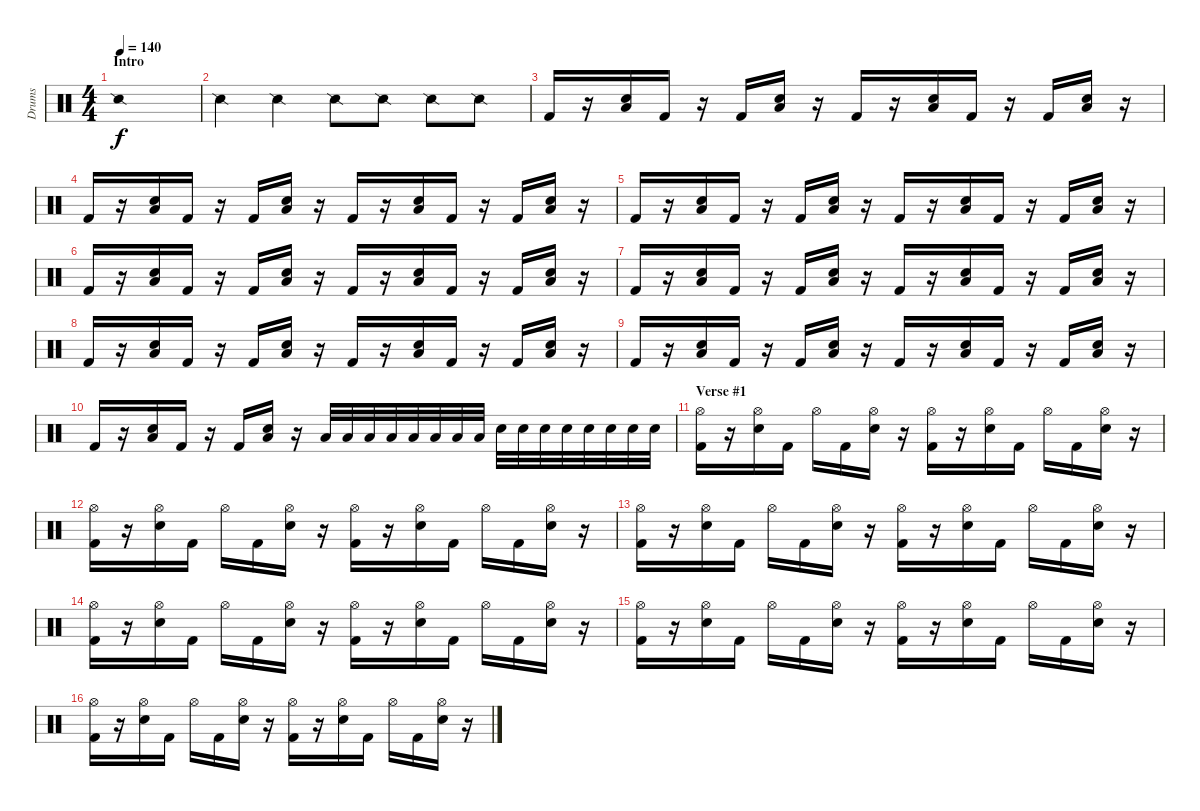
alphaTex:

\track ("Drums" "Drums") {instrument percussion}
\staff {score}
\articulation defaults
\ts (4 4)
\section ("" "Intro")
\tempo 140
\clef neutral
\ks c "Snare (side stick) 2".1{dy f}
|
"Snare (side stick) 2".4 "Snare (side stick) 2".4 "Snare (side stick) 2".8 "Snare (side stick) 2".8 "Snare (side stick) 2".8 "Snare (side stick) 2".8 |
"Kick (hit) 2".16 r.16 ("Low Tom (hit)" "Electric Snare (hit)").16 "Kick (hit) 2".16 r.16 "Kick (hit) 2".16 ("Low Tom (hit)" "Electric Snare (hit)").16 r.16 "Kick (hit) 2".16 r.16 ("Low Tom (hit)" "Electric Snare (hit)").16 "Kick (hit) 2".16 r.16 "Kick (hit) 2".16 ("Low Tom (hit)" "Electric Snare (hit)").16 r.16 |
"Kick (hit) 2".16 r.16 ("Low Tom (hit)" "Electric Snare (hit)").16 "Kick (hit) 2".16 r.16 "Kick (hit) 2".16 ("Low Tom (hit)" "Electric Snare (hit)").16 r.16 "Kick (hit) 2".16 r.16 ("Low Tom (hit)" "Electric Snare (hit)").16 "Kick (hit) 2".16 r.16 "Kick (hit) 2".16 ("Low Tom (hit)" "Electric Snare (hit)").16 r.16 |
"Kick (hit) 2".16 r.16 ("Low Tom (hit)" "Electric Snare (hit)").16 "Kick (hit) 2".16 r.16 "Kick (hit) 2".16 ("Low Tom (hit)" "Electric Snare (hit)").16 r.16 "Kick (hit) 2".16 r.16 ("Low Tom (hit)" "Electric Snare (hit)").16 "Kick (hit) 2".16 r.16 "Kick (hit) 2".16 ("Low Tom (hit)" "Electric Snare (hit)").16 r.16 |
"Kick (hit) 2".16 r.16 ("Low Tom (hit)" "Electric Snare (hit)").16 "Kick (hit) 2".16 r.16 "Kick (hit) 2".16 ("Low Tom (hit)" "Electric Snare (hit)").16 r.16 "Kick (hit) 2".16 r.16 ("Low Tom (hit)" "Electric Snare (hit)").16 "Kick (hit) 2".16 r.16 "Kick (hit) 2".16 ("Low Tom (hit)" "Electric Snare (hit)").16 r.16 |
"Kick (hit) 2".16 r.16 ("Low Tom (hit)" "Electric Snare (hit)").16 "Kick (hit) 2".16 r.16 "Kick (hit) 2".16 ("Low Tom (hit)" "Electric Snare (hit)").16 r.16 "Kick (hit) 2".16 r.16 ("Low Tom (hit)" "Electric Snare (hit)").16 "Kick (hit) 2".16 r.16 "Kick (hit) 2".16 ("Low Tom (hit)" "Electric Snare (hit)").16 r.16 |
"Kick (hit) 2".16 r.16 ("Low Tom (hit)" "Electric Snare (hit)").16 "Kick (hit) 2".16 r.16 "Kick (hit) 2".16 ("Low Tom (hit)" "Electric Snare (hit)").16 r.16 "Kick (hit) 2".16 r.16 ("Low Tom (hit)" "Electric Snare (hit)").16 "Kick (hit) 2".16 r.16 "Kick (hit) 2".16 ("Low Tom (hit)" "Electric Snare (hit)").16 r.16 |
"Kick (hit) 2".16 r.16 ("Low Tom (hit)" "Electric Snare (hit)").16 "Kick (hit) 2".16 r.16 "Kick (hit) 2".16 ("Low Tom (hit)" "Electric Snare (hit)").16 r.16 "Kick (hit) 2".16 r.16 ("Low Tom (hit)" "Electric Snare (hit)").16 "Kick (hit) 2".16 r.16 "Kick (hit) 2".16 ("Low Tom (hit)" "Electric Snare (hit)").16 r.16 |
"Kick (hit) 2".16 r.16 ("Low Tom (hit)" "Electric Snare (hit)").16 "Kick (hit) 2".16 r.16 "Kick (hit) 2".16 ("Low Tom (hit)" "Electric Snare (hit)").16 r.16 "Low Tom (hit)".32 "Low Tom (hit)".32 "Low Tom (hit)".32 "Low Tom (hit)".32 "Low Tom (hit)".32 "Low Tom (hit)".32 "Low Tom (hit)".32 "Low Tom (hit)".32 "Electric Snare (hit)".32 "Electric Snare (hit)".32 "Electric Snare (hit)".32 "Electric Snare (hit)".32 "Electric Snare (hit)".32 "Electric Snare (hit)".32 "Electric Snare (hit)".32 "Electric Snare (hit)".32 |
\section ("" "Verse #1")
("Hi-Hat (open)" "Kick (hit) 2").16 r.16 ("Hi-Hat (open)" "Electric Snare (hit)").16 "Kick (hit) 2".16 "Hi-Hat (open)".16 "Kick (hit) 2".16 ("Hi-Hat (open)" "Electric Snare (hit)").16 r.16 ("Hi-Hat (open)" "Kick (hit) 2").16 r.16 ("Hi-Hat (open)" "Electric Snare (hit)").16 "Kick (hit) 2".16 "Hi-Hat (open)".16 "Kick (hit) 2".16 ("Hi-Hat (open)" "Electric Snare (hit)").16 r.16 |
("Hi-Hat (open)" "Kick (hit) 2").16 r.16 ("Hi-Hat (open)" "Electric Snare (hit)").16 "Kick (hit) 2".16 "Hi-Hat (open)".16 "Kick (hit) 2".16 ("Hi-Hat (open)" "Electric Snare (hit)").16 r.16 ("Hi-Hat (open)" "Kick (hit) 2").16 r.16 ("Hi-Hat (open)" "Electric Snare (hit)").16 "Kick (hit) 2".16 "Hi-Hat (open)".16 "Kick (hit) 2".16 ("Hi-Hat (open)" "Electric Snare (hit)").16 r.16 |
("Hi-Hat (open)" "Kick (hit) 2").16 r.16 ("Hi-Hat (open)" "Electric Snare (hit)").16 "Kick (hit) 2".16 "Hi-Hat (open)".16 "Kick (hit) 2".16 ("Hi-Hat (open)" "Electric Snare (hit)").16 r.16 ("Hi-Hat (open)" "Kick (hit) 2").16 r.16 ("Hi-Hat (open)" "Electric Snare (hit)").16 "Kick (hit) 2".16 "Hi-Hat (open)".16 "Kick (hit) 2".16 ("Hi-Hat (open)" "Electric Snare (hit)").16 r.16 |
("Hi-Hat (open)" "Kick (hit) 2").16 r.16 ("Hi-Hat (open)" "Electric Snare (hit)").16 "Kick (hit) 2".16 "Hi-Hat (open)".16 "Kick (hit) 2".16 ("Hi-Hat (open)" "Electric Snare (hit)").16 r.16 ("Hi-Hat (open)" "Kick (hit) 2").16 r.16 ("Hi-Hat (open)" "Electric Snare (hit)").16 "Kick (hit) 2".16 "Hi-Hat (open)".16 "Kick (hit) 2".16 ("Hi-Hat (open)" "Electric Snare (hit)").16 r.16 |
("Hi-Hat (open)" "Kick (hit) 2").16 r.16 ("Hi-Hat (open)" "Electric Snare (hit)").16 "Kick (hit) 2".16 "Hi-Hat (open)".16 "Kick (hit) 2".16 ("Hi-Hat (open)" "Electric Snare (hit)").16 r.16 ("Hi-Hat (open)" "Kick (hit) 2").16 r.16 ("Hi-Hat (open)" "Electric Snare (hit)").16 "Kick (hit) 2".16 "Hi-Hat (open)".16 "Kick (hit) 2".16 ("Hi-Hat (open)" "Electric Snare (hit)").16 r.16 |
("Hi-Hat (open)" "Kick (hit) 2").16 r.16 ("Hi-Hat (open)" "Electric Snare (hit)").16 "Kick (hit) 2".16 "Hi-Hat (open)".16 "Kick (hit) 2".16 ("Hi-Hat (open)" "Electric Snare (hit)").16 r.16 ("Hi-Hat (open)" "Kick (hit) 2").16 r.16 ("Hi-Hat (open)" "Electric Snare (hit)").16 "Kick (hit) 2".16 "Hi-Hat (open)".16 "Kick (hit) 2".16 ("Hi-Hat (open)" "Electric Snare (hit)").16 r.16
